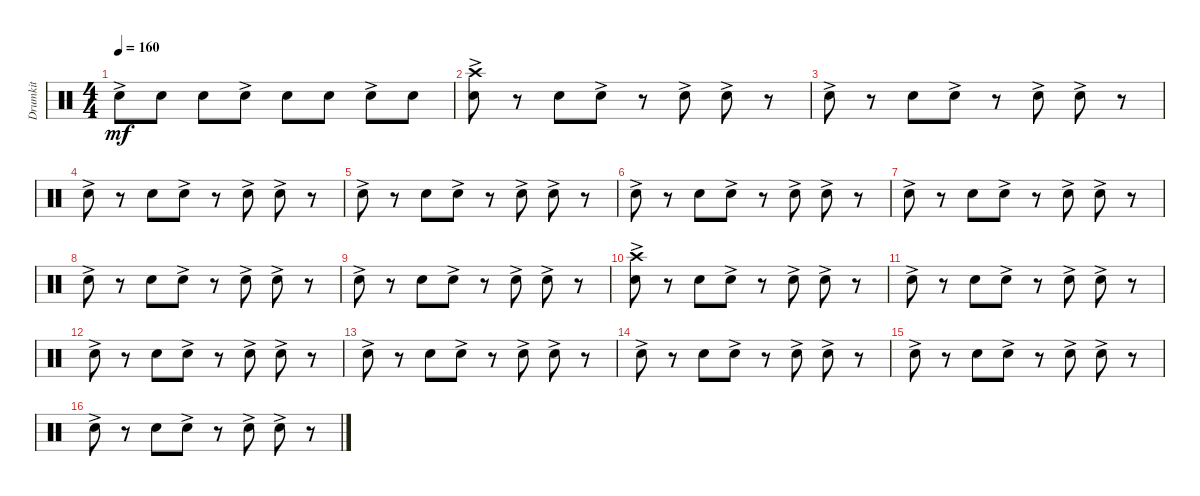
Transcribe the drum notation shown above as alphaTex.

\track ("Drumkit" "Drumkit") {instrument percussion}
\staff {score}
\articulation defaults
\ts (4 4)
\tempo 160
\clef neutral
\ks c "Snare (hit) 2"{ac}.8{dy mf} "Snare (hit) 2".8 "Snare (hit) 2".8 "Snare (hit) 2"{ac}.8 "Snare (hit) 2".8 "Snare (hit) 2".8 "Snare (hit) 2"{ac}.8 "Snare (hit) 2".8
|
("Snare (hit) 2"{ac} "Crash high (hit)").8 r.8 "Snare (hit) 2".8 "Snare (hit) 2"{ac}.8 r.8 "Snare (hit) 2"{ac}.8 "Snare (hit) 2"{ac}.8 r.8 |
"Snare (hit) 2"{ac}.8 r.8 "Snare (hit) 2".8 "Snare (hit) 2"{ac}.8 r.8 "Snare (hit) 2"{ac}.8 "Snare (hit) 2"{ac}.8 r.8 |
"Snare (hit) 2"{ac}.8 r.8 "Snare (hit) 2".8 "Snare (hit) 2"{ac}.8 r.8 "Snare (hit) 2"{ac}.8 "Snare (hit) 2"{ac}.8 r.8 |
"Snare (hit) 2"{ac}.8 r.8 "Snare (hit) 2".8 "Snare (hit) 2"{ac}.8 r.8 "Snare (hit) 2"{ac}.8 "Snare (hit) 2"{ac}.8 r.8 |
"Snare (hit) 2"{ac}.8 r.8 "Snare (hit) 2".8 "Snare (hit) 2"{ac}.8 r.8 "Snare (hit) 2"{ac}.8 "Snare (hit) 2"{ac}.8 r.8 |
"Snare (hit) 2"{ac}.8 r.8 "Snare (hit) 2".8 "Snare (hit) 2"{ac}.8 r.8 "Snare (hit) 2"{ac}.8 "Snare (hit) 2"{ac}.8 r.8 |
"Snare (hit) 2"{ac}.8 r.8 "Snare (hit) 2".8 "Snare (hit) 2"{ac}.8 r.8 "Snare (hit) 2"{ac}.8 "Snare (hit) 2"{ac}.8 r.8 |
"Snare (hit) 2"{ac}.8 r.8 "Snare (hit) 2".8 "Snare (hit) 2"{ac}.8 r.8 "Snare (hit) 2"{ac}.8 "Snare (hit) 2"{ac}.8 r.8 |
("Snare (hit) 2"{ac} "Crash high (hit)").8 r.8 "Snare (hit) 2".8 "Snare (hit) 2"{ac}.8 r.8 "Snare (hit) 2"{ac}.8 "Snare (hit) 2"{ac}.8 r.8 |
"Snare (hit) 2"{ac}.8 r.8 "Snare (hit) 2".8 "Snare (hit) 2"{ac}.8 r.8 "Snare (hit) 2"{ac}.8 "Snare (hit) 2"{ac}.8 r.8 |
"Snare (hit) 2"{ac}.8 r.8 "Snare (hit) 2".8 "Snare (hit) 2"{ac}.8 r.8 "Snare (hit) 2"{ac}.8 "Snare (hit) 2"{ac}.8 r.8 |
"Snare (hit) 2"{ac}.8 r.8 "Snare (hit) 2".8 "Snare (hit) 2"{ac}.8 r.8 "Snare (hit) 2"{ac}.8 "Snare (hit) 2"{ac}.8 r.8 |
"Snare (hit) 2"{ac}.8 r.8 "Snare (hit) 2".8 "Snare (hit) 2"{ac}.8 r.8 "Snare (hit) 2"{ac}.8 "Snare (hit) 2"{ac}.8 r.8 |
"Snare (hit) 2"{ac}.8 r.8 "Snare (hit) 2".8 "Snare (hit) 2"{ac}.8 r.8 "Snare (hit) 2"{ac}.8 "Snare (hit) 2"{ac}.8 r.8 |
"Snare (hit) 2"{ac}.8 r.8 "Snare (hit) 2".8 "Snare (hit) 2"{ac}.8 r.8 "Snare (hit) 2"{ac}.8 "Snare (hit) 2"{ac}.8 r.8
